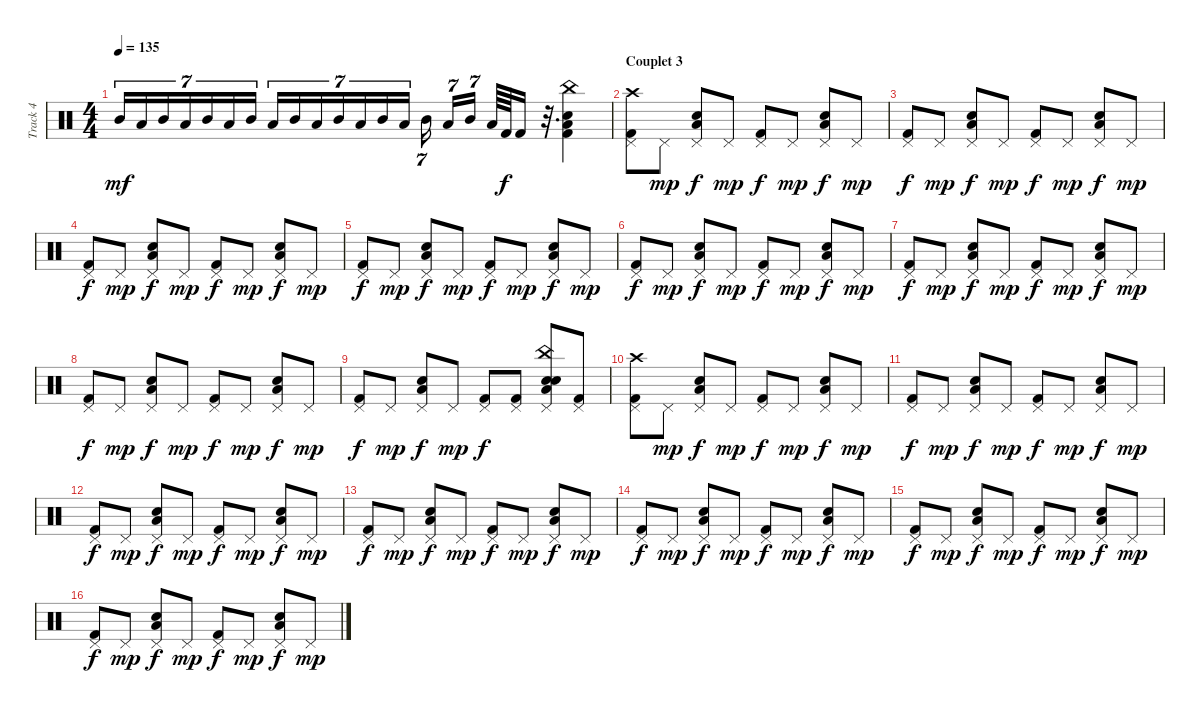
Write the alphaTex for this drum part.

\track ("Track 4" "Track 4") {instrument percussion}
\staff {score}
\articulation defaults
\ts (4 4)
\tempo 135
\clef neutral
\ks c "Mid Tom (hit)".16{tu (7 4) dy mf} "Low Tom (hit)".16{tu (7 4)} "Mid Tom (hit)".16{tu (7 4)} "Low Tom (hit)".16{tu (7 4)} "Mid Tom (hit)".16{tu (7 4)} "Low Tom (hit)".16{tu (7 4)} "Mid Tom (hit)".16{tu (7 4)} "Low Tom (hit)".16{tu (7 4)} "Mid Tom (hit)".16{tu (7 4)} "Low Tom (hit)".16{tu (7 4)} "Mid Tom (hit)".16{tu (7 4)} "Low Tom (hit)".16{tu (7 4)} "Mid Tom (hit)".16{tu (7 4)} "Low Tom (hit)".16{tu (7 4)} "Mid Tom (hit)".16{tu (7 4)} "Low Tom (hit)".16{tu (7 4)} "Mid Tom (hit)".16{tu (7 4)} "Low Tom (hit)".64 "Kick (hit) 2".64{dy f} "Kick (hit) 2".16
r.32{d} ("Low Tom (hit)" "Snare (hit) 2" "Kick (hit) 2" "China (hit)").4 |
\section ("" "Couplet 3")
("Pedal Hi-Hat (hit)" "Kick (hit) 2" "Crash high (hit)").8 "Pedal Hi-Hat (hit)".8{dy mp} ("Pedal Hi-Hat (hit)" "Low Tom (hit)" "Electric Snare (hit)").8{dy f} "Pedal Hi-Hat (hit)".8{dy mp} ("Pedal Hi-Hat (hit)" "Kick (hit) 2").8{dy f} "Pedal Hi-Hat (hit)".8{dy mp} ("Pedal Hi-Hat (hit)" "Low Tom (hit)" "Electric Snare (hit)").8{dy f} "Pedal Hi-Hat (hit)".8{dy mp} |
("Pedal Hi-Hat (hit)" "Kick (hit) 2").8{dy f} "Pedal Hi-Hat (hit)".8{dy mp} ("Pedal Hi-Hat (hit)" "Low Tom (hit)" "Electric Snare (hit)").8{dy f} "Pedal Hi-Hat (hit)".8{dy mp} ("Pedal Hi-Hat (hit)" "Kick (hit) 2").8{dy f} "Pedal Hi-Hat (hit)".8{dy mp} ("Pedal Hi-Hat (hit)" "Low Tom (hit)" "Electric Snare (hit)").8{dy f} "Pedal Hi-Hat (hit)".8{dy mp} |
("Pedal Hi-Hat (hit)" "Kick (hit) 2").8{dy f} "Pedal Hi-Hat (hit)".8{dy mp} ("Pedal Hi-Hat (hit)" "Low Tom (hit)" "Electric Snare (hit)").8{dy f} "Pedal Hi-Hat (hit)".8{dy mp} ("Pedal Hi-Hat (hit)" "Kick (hit) 2").8{dy f} "Pedal Hi-Hat (hit)".8{dy mp} ("Pedal Hi-Hat (hit)" "Low Tom (hit)" "Electric Snare (hit)").8{dy f} "Pedal Hi-Hat (hit)".8{dy mp} |
("Pedal Hi-Hat (hit)" "Kick (hit) 2").8{dy f} "Pedal Hi-Hat (hit)".8{dy mp} ("Pedal Hi-Hat (hit)" "Low Tom (hit)" "Electric Snare (hit)").8{dy f} "Pedal Hi-Hat (hit)".8{dy mp} ("Pedal Hi-Hat (hit)" "Kick (hit) 2").8{dy f} "Pedal Hi-Hat (hit)".8{dy mp} ("Pedal Hi-Hat (hit)" "Low Tom (hit)" "Electric Snare (hit)").8{dy f} "Pedal Hi-Hat (hit)".8{dy mp} |
("Pedal Hi-Hat (hit)" "Kick (hit) 2").8{dy f} "Pedal Hi-Hat (hit)".8{dy mp} ("Pedal Hi-Hat (hit)" "Low Tom (hit)" "Electric Snare (hit)").8{dy f} "Pedal Hi-Hat (hit)".8{dy mp} ("Pedal Hi-Hat (hit)" "Kick (hit) 2").8{dy f} "Pedal Hi-Hat (hit)".8{dy mp} ("Pedal Hi-Hat (hit)" "Low Tom (hit)" "Electric Snare (hit)").8{dy f} "Pedal Hi-Hat (hit)".8{dy mp} |
("Pedal Hi-Hat (hit)" "Kick (hit) 2").8{dy f} "Pedal Hi-Hat (hit)".8{dy mp} ("Pedal Hi-Hat (hit)" "Low Tom (hit)" "Electric Snare (hit)").8{dy f} "Pedal Hi-Hat (hit)".8{dy mp} ("Pedal Hi-Hat (hit)" "Kick (hit) 2").8{dy f} "Pedal Hi-Hat (hit)".8{dy mp} ("Pedal Hi-Hat (hit)" "Low Tom (hit)" "Electric Snare (hit)").8{dy f} "Pedal Hi-Hat (hit)".8{dy mp} |
("Pedal Hi-Hat (hit)" "Kick (hit) 2").8{dy f} "Pedal Hi-Hat (hit)".8{dy mp} ("Pedal Hi-Hat (hit)" "Low Tom (hit)" "Electric Snare (hit)").8{dy f} "Pedal Hi-Hat (hit)".8{dy mp} ("Pedal Hi-Hat (hit)" "Kick (hit) 2").8{dy f} "Pedal Hi-Hat (hit)".8{dy mp} ("Pedal Hi-Hat (hit)" "Low Tom (hit)" "Electric Snare (hit)").8{dy f} "Pedal Hi-Hat (hit)".8{dy mp} |
("Pedal Hi-Hat (hit)" "Kick (hit) 2").8{dy f} "Pedal Hi-Hat (hit)".8{dy mp} ("Pedal Hi-Hat (hit)" "Low Tom (hit)" "Electric Snare (hit)").8{dy f} "Pedal Hi-Hat (hit)".8{dy mp} ("Pedal Hi-Hat (hit)" "Kick (hit) 2").8{dy f} ("Pedal Hi-Hat (hit)" "Kick (hit) 2").8 ("Pedal Hi-Hat (hit)" "Low Tom (hit)" "Electric Snare (hit)" "Snare (hit) 2" "China (hit)").8 ("Pedal Hi-Hat (hit)" "Kick (hit) 2").8 |
("Pedal Hi-Hat (hit)" "Kick (hit) 2" "Crash high (hit)").8 "Pedal Hi-Hat (hit)".8{dy mp} ("Pedal Hi-Hat (hit)" "Low Tom (hit)" "Electric Snare (hit)").8{dy f} "Pedal Hi-Hat (hit)".8{dy mp} ("Pedal Hi-Hat (hit)" "Kick (hit) 2").8{dy f} "Pedal Hi-Hat (hit)".8{dy mp} ("Pedal Hi-Hat (hit)" "Low Tom (hit)" "Electric Snare (hit)").8{dy f} "Pedal Hi-Hat (hit)".8{dy mp} |
("Pedal Hi-Hat (hit)" "Kick (hit) 2").8{dy f} "Pedal Hi-Hat (hit)".8{dy mp} ("Pedal Hi-Hat (hit)" "Low Tom (hit)" "Electric Snare (hit)").8{dy f} "Pedal Hi-Hat (hit)".8{dy mp} ("Pedal Hi-Hat (hit)" "Kick (hit) 2").8{dy f} "Pedal Hi-Hat (hit)".8{dy mp} ("Pedal Hi-Hat (hit)" "Low Tom (hit)" "Electric Snare (hit)").8{dy f} "Pedal Hi-Hat (hit)".8{dy mp} |
("Pedal Hi-Hat (hit)" "Kick (hit) 2").8{dy f} "Pedal Hi-Hat (hit)".8{dy mp} ("Pedal Hi-Hat (hit)" "Low Tom (hit)" "Electric Snare (hit)").8{dy f} "Pedal Hi-Hat (hit)".8{dy mp} ("Pedal Hi-Hat (hit)" "Kick (hit) 2").8{dy f} "Pedal Hi-Hat (hit)".8{dy mp} ("Pedal Hi-Hat (hit)" "Low Tom (hit)" "Electric Snare (hit)").8{dy f} "Pedal Hi-Hat (hit)".8{dy mp} |
("Pedal Hi-Hat (hit)" "Kick (hit) 2").8{dy f} "Pedal Hi-Hat (hit)".8{dy mp} ("Pedal Hi-Hat (hit)" "Low Tom (hit)" "Electric Snare (hit)").8{dy f} "Pedal Hi-Hat (hit)".8{dy mp} ("Pedal Hi-Hat (hit)" "Kick (hit) 2").8{dy f} "Pedal Hi-Hat (hit)".8{dy mp} ("Pedal Hi-Hat (hit)" "Low Tom (hit)" "Electric Snare (hit)").8{dy f} "Pedal Hi-Hat (hit)".8{dy mp} |
("Pedal Hi-Hat (hit)" "Kick (hit) 2").8{dy f} "Pedal Hi-Hat (hit)".8{dy mp} ("Pedal Hi-Hat (hit)" "Low Tom (hit)" "Electric Snare (hit)").8{dy f} "Pedal Hi-Hat (hit)".8{dy mp} ("Pedal Hi-Hat (hit)" "Kick (hit) 2").8{dy f} "Pedal Hi-Hat (hit)".8{dy mp} ("Pedal Hi-Hat (hit)" "Low Tom (hit)" "Electric Snare (hit)").8{dy f} "Pedal Hi-Hat (hit)".8{dy mp} |
("Pedal Hi-Hat (hit)" "Kick (hit) 2").8{dy f} "Pedal Hi-Hat (hit)".8{dy mp} ("Pedal Hi-Hat (hit)" "Low Tom (hit)" "Electric Snare (hit)").8{dy f} "Pedal Hi-Hat (hit)".8{dy mp} ("Pedal Hi-Hat (hit)" "Kick (hit) 2").8{dy f} "Pedal Hi-Hat (hit)".8{dy mp} ("Pedal Hi-Hat (hit)" "Low Tom (hit)" "Electric Snare (hit)").8{dy f} "Pedal Hi-Hat (hit)".8{dy mp} |
("Pedal Hi-Hat (hit)" "Kick (hit) 2").8{dy f} "Pedal Hi-Hat (hit)".8{dy mp} ("Pedal Hi-Hat (hit)" "Low Tom (hit)" "Electric Snare (hit)").8{dy f} "Pedal Hi-Hat (hit)".8{dy mp} ("Pedal Hi-Hat (hit)" "Kick (hit) 2").8{dy f} "Pedal Hi-Hat (hit)".8{dy mp} ("Pedal Hi-Hat (hit)" "Low Tom (hit)" "Electric Snare (hit)").8{dy f} "Pedal Hi-Hat (hit)".8{dy mp}
